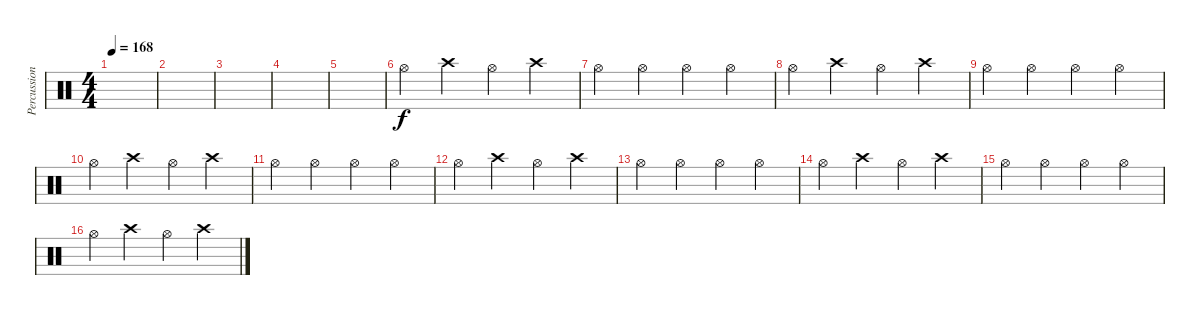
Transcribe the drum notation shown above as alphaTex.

\track ("Percussion" "Percussion") {instrument percussion}
\staff {score}
\articulation defaults
\ts (4 4)
\tempo 168
\clef neutral
\ks c
|
|
|
|
|
"Hi-Hat (open)".4 "Crash high (hit)".4 "Hi-Hat (open)".4 "Crash high (hit)".4 |
"Hi-Hat (open)".4 "Hi-Hat (open)".4 "Hi-Hat (open)".4 "Hi-Hat (open)".4 |
"Hi-Hat (open)".4 "Crash high (hit)".4 "Hi-Hat (open)".4 "Crash high (hit)".4 |
"Hi-Hat (open)".4 "Hi-Hat (open)".4 "Hi-Hat (open)".4 "Hi-Hat (open)".4 |
"Hi-Hat (open)".4 "Crash high (hit)".4 "Hi-Hat (open)".4 "Crash high (hit)".4 |
"Hi-Hat (open)".4 "Hi-Hat (open)".4 "Hi-Hat (open)".4 "Hi-Hat (open)".4 |
"Hi-Hat (open)".4 "Crash high (hit)".4 "Hi-Hat (open)".4 "Crash high (hit)".4 |
"Hi-Hat (open)".4 "Hi-Hat (open)".4 "Hi-Hat (open)".4 "Hi-Hat (open)".4 |
"Hi-Hat (open)".4 "Crash high (hit)".4 "Hi-Hat (open)".4 "Crash high (hit)".4 |
"Hi-Hat (open)".4 "Hi-Hat (open)".4 "Hi-Hat (open)".4 "Hi-Hat (open)".4 |
"Hi-Hat (open)".4 "Crash high (hit)".4 "Hi-Hat (open)".4 "Crash high (hit)".4
